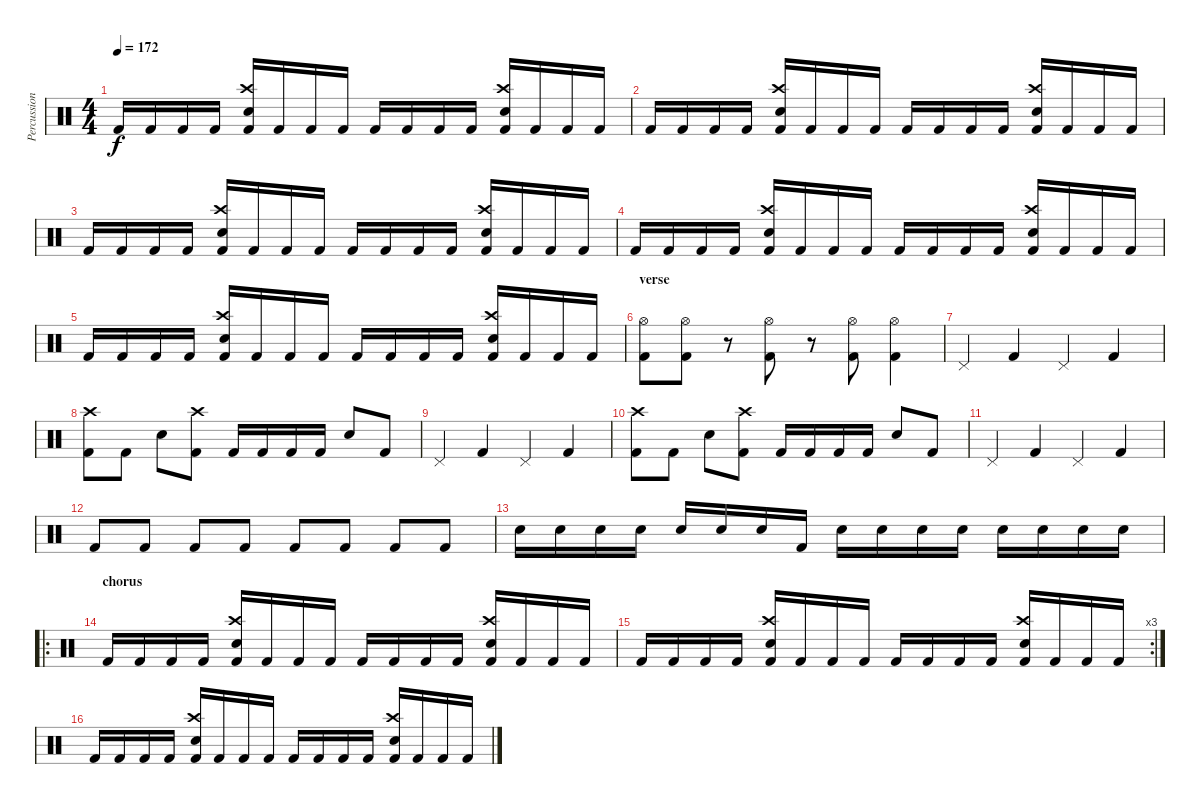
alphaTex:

\track ("Percussion" "Percussion") {instrument percussion}
\staff {score}
\articulation defaults
\ts (4 4)
\tempo 172
\clef neutral
\ks c "Kick (hit) 2".16{dy f} "Kick (hit) 2".16 "Kick (hit) 2".16 "Kick (hit) 2".16
("Crash high (hit)" "Electric Snare (hit)" "Kick (hit) 2").16 "Kick (hit) 2".16 "Kick (hit) 2".16 "Kick (hit) 2".16 "Kick (hit) 2".16 "Kick (hit) 2".16 "Kick (hit) 2".16 "Kick (hit) 2".16 ("Crash high (hit)" "Electric Snare (hit)" "Kick (hit) 2").16 "Kick (hit) 2".16 "Kick (hit) 2".16 "Kick (hit) 2".16 |
"Kick (hit) 2".16 "Kick (hit) 2".16 "Kick (hit) 2".16 "Kick (hit) 2".16 ("Crash high (hit)" "Electric Snare (hit)" "Kick (hit) 2").16 "Kick (hit) 2".16 "Kick (hit) 2".16 "Kick (hit) 2".16 "Kick (hit) 2".16 "Kick (hit) 2".16 "Kick (hit) 2".16 "Kick (hit) 2".16 ("Crash high (hit)" "Electric Snare (hit)" "Kick (hit) 2").16 "Kick (hit) 2".16 "Kick (hit) 2".16 "Kick (hit) 2".16 |
"Kick (hit) 2".16 "Kick (hit) 2".16 "Kick (hit) 2".16 "Kick (hit) 2".16 ("Crash high (hit)" "Electric Snare (hit)" "Kick (hit) 2").16 "Kick (hit) 2".16 "Kick (hit) 2".16 "Kick (hit) 2".16 "Kick (hit) 2".16 "Kick (hit) 2".16 "Kick (hit) 2".16 "Kick (hit) 2".16 ("Crash high (hit)" "Electric Snare (hit)" "Kick (hit) 2").16 "Kick (hit) 2".16 "Kick (hit) 2".16 "Kick (hit) 2".16 |
"Kick (hit) 2".16 "Kick (hit) 2".16 "Kick (hit) 2".16 "Kick (hit) 2".16 ("Crash high (hit)" "Electric Snare (hit)" "Kick (hit) 2").16 "Kick (hit) 2".16 "Kick (hit) 2".16 "Kick (hit) 2".16 "Kick (hit) 2".16 "Kick (hit) 2".16 "Kick (hit) 2".16 "Kick (hit) 2".16 ("Crash high (hit)" "Electric Snare (hit)" "Kick (hit) 2").16 "Kick (hit) 2".16 "Kick (hit) 2".16 "Kick (hit) 2".16 |
"Kick (hit) 2".16 "Kick (hit) 2".16 "Kick (hit) 2".16 "Kick (hit) 2".16 ("Crash high (hit)" "Electric Snare (hit)" "Kick (hit) 2").16 "Kick (hit) 2".16 "Kick (hit) 2".16 "Kick (hit) 2".16 "Kick (hit) 2".16 "Kick (hit) 2".16 "Kick (hit) 2".16 "Kick (hit) 2".16 ("Crash high (hit)" "Electric Snare (hit)" "Kick (hit) 2").16 "Kick (hit) 2".16 "Kick (hit) 2".16 "Kick (hit) 2".16 |
\section ("" "verse")
("Hi-Hat (open)" "Kick (hit) 2").8 ("Hi-Hat (open)" "Kick (hit) 2").8 r.8 ("Hi-Hat (open)" "Kick (hit) 2").8 r.8 ("Hi-Hat (open)" "Kick (hit) 2").8 ("Hi-Hat (open)" "Kick (hit) 2").4 |
"Pedal Hi-Hat (hit)".4 "Kick (hit) 2".4 "Pedal Hi-Hat (hit)".4 "Kick (hit) 2".4 |
("Crash high (hit)" "Kick (hit) 2").8 "Kick (hit) 2".8 "Electric Snare (hit)".8 ("Crash high (hit)" "Kick (hit) 2").8 "Kick (hit) 2".16 "Kick (hit) 2".16 "Kick (hit) 2".16 "Kick (hit) 2".16 "Electric Snare (hit)".8 "Kick (hit) 2".8 |
"Pedal Hi-Hat (hit)".4 "Kick (hit) 2".4 "Pedal Hi-Hat (hit)".4 "Kick (hit) 2".4 |
("Crash high (hit)" "Kick (hit) 2").8 "Kick (hit) 2".8 "Electric Snare (hit)".8 ("Crash high (hit)" "Kick (hit) 2").8 "Kick (hit) 2".16 "Kick (hit) 2".16 "Kick (hit) 2".16 "Kick (hit) 2".16 "Electric Snare (hit)".8 "Kick (hit) 2".8 |
"Pedal Hi-Hat (hit)".4 "Kick (hit) 2".4 "Pedal Hi-Hat (hit)".4 "Kick (hit) 2".4 |
"Kick (hit) 2".8 "Kick (hit) 2".8 "Kick (hit) 2".8 "Kick (hit) 2".8 "Kick (hit) 2".8 "Kick (hit) 2".8 "Kick (hit) 2".8 "Kick (hit) 2".8 |
"Electric Snare (hit)".16 "Electric Snare (hit)".16 "Electric Snare (hit)".16 "Electric Snare (hit)".16 "Electric Snare (hit)".16 "Electric Snare (hit)".16 "Electric Snare (hit)".16 "Kick (hit) 2".16 "Electric Snare (hit)".16 "Electric Snare (hit)".16 "Electric Snare (hit)".16 "Electric Snare (hit)".16 "Electric Snare (hit)".16 "Electric Snare (hit)".16 "Electric Snare (hit)".16 "Electric Snare (hit)".16 |
\ro
\section ("" "chorus")
"Kick (hit) 2".16 "Kick (hit) 2".16 "Kick (hit) 2".16 "Kick (hit) 2".16 ("Crash high (hit)" "Electric Snare (hit)" "Kick (hit) 2").16 "Kick (hit) 2".16 "Kick (hit) 2".16 "Kick (hit) 2".16 "Kick (hit) 2".16 "Kick (hit) 2".16 "Kick (hit) 2".16 "Kick (hit) 2".16 ("Crash high (hit)" "Electric Snare (hit)" "Kick (hit) 2").16 "Kick (hit) 2".16 "Kick (hit) 2".16 "Kick (hit) 2".16 |
\rc 3 "Kick (hit) 2".16 "Kick (hit) 2".16 "Kick (hit) 2".16 "Kick (hit) 2".16
("Crash high (hit)" "Electric Snare (hit)" "Kick (hit) 2").16 "Kick (hit) 2".16 "Kick (hit) 2".16 "Kick (hit) 2".16 "Kick (hit) 2".16 "Kick (hit) 2".16 "Kick (hit) 2".16 "Kick (hit) 2".16 ("Crash high (hit)" "Electric Snare (hit)" "Kick (hit) 2").16 "Kick (hit) 2".16 "Kick (hit) 2".16 "Kick (hit) 2".16 |
"Kick (hit) 2".16 "Kick (hit) 2".16 "Kick (hit) 2".16 "Kick (hit) 2".16 ("Crash high (hit)" "Electric Snare (hit)" "Kick (hit) 2").16 "Kick (hit) 2".16 "Kick (hit) 2".16 "Kick (hit) 2".16 "Kick (hit) 2".16 "Kick (hit) 2".16 "Kick (hit) 2".16 "Kick (hit) 2".16 ("Crash high (hit)" "Electric Snare (hit)" "Kick (hit) 2").16 "Kick (hit) 2".16 "Kick (hit) 2".16 "Kick (hit) 2".16
